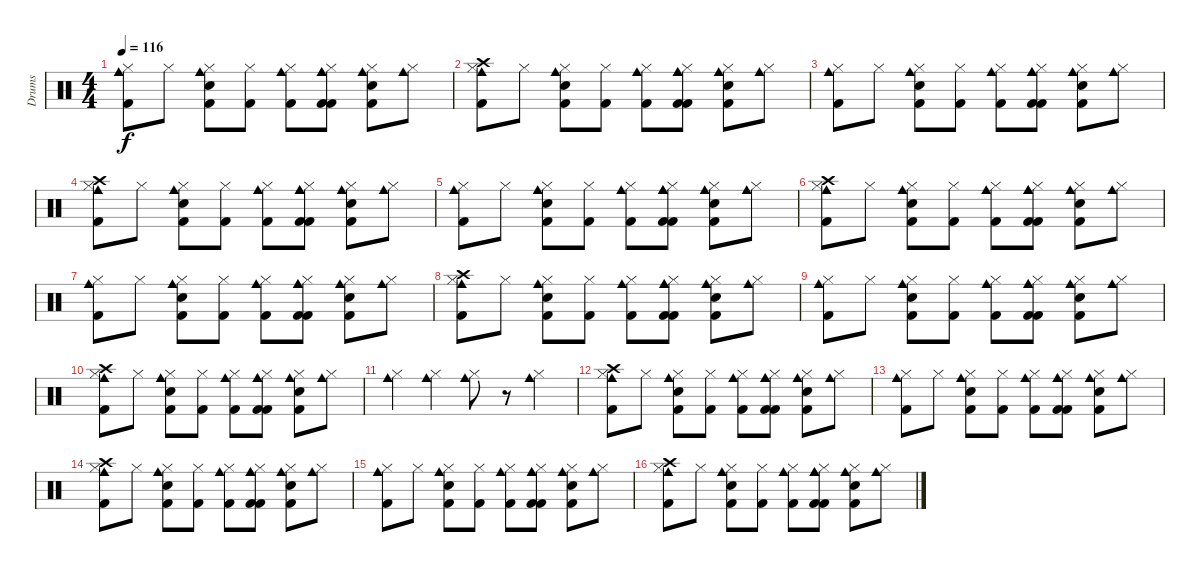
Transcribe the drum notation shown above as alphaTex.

\track ("Drums" "Drums") {instrument percussion}
\staff {score}
\articulation defaults
\ts (4 4)
\tempo 116
\clef neutral
\ks c
("Kick (hit) 2" "Hi-Hat (closed)" "Cowbell medium (hit)").8{dy f} "Hi-Hat (closed)".8 ("Snare (hit) 2" "Kick (hit) 2" "Hi-Hat (closed)" "Cowbell medium (hit)").8 ("Kick (hit) 2" "Hi-Hat (closed)").8 ("Hi-Hat (closed)" "Kick (hit) 2" "Cowbell medium (hit)").8 ("Kick (hit) 2" "Hi-Hat (closed)" "Cowbell medium (hit)" "Kick (hit) 2" "Cowbell medium (hit)").8 ("Kick (hit) 2" "Snare (hit) 2" "Hi-Hat (closed)" "Cowbell medium (hit)").8 ("Hi-Hat (closed)" "Cowbell medium (hit)").8 |
("Kick (hit) 2" "Hi-Hat (closed)" "Cowbell medium (hit)" "Crash high (hit)").8 "Hi-Hat (closed)".8 ("Snare (hit) 2" "Kick (hit) 2" "Hi-Hat (closed)" "Cowbell medium (hit)").8 ("Kick (hit) 2" "Hi-Hat (closed)").8 ("Hi-Hat (closed)" "Kick (hit) 2" "Cowbell medium (hit)").8 ("Kick (hit) 2" "Hi-Hat (closed)" "Cowbell medium (hit)" "Kick (hit) 2" "Cowbell medium (hit)").8 ("Kick (hit) 2" "Snare (hit) 2" "Hi-Hat (closed)" "Cowbell medium (hit)").8 ("Hi-Hat (closed)" "Cowbell medium (hit)").8 |
("Kick (hit) 2" "Hi-Hat (closed)" "Cowbell medium (hit)").8 "Hi-Hat (closed)".8 ("Snare (hit) 2" "Kick (hit) 2" "Hi-Hat (closed)" "Cowbell medium (hit)").8 ("Kick (hit) 2" "Hi-Hat (closed)").8 ("Hi-Hat (closed)" "Kick (hit) 2" "Cowbell medium (hit)").8 ("Kick (hit) 2" "Hi-Hat (closed)" "Cowbell medium (hit)" "Kick (hit) 2" "Cowbell medium (hit)").8 ("Kick (hit) 2" "Snare (hit) 2" "Hi-Hat (closed)" "Cowbell medium (hit)").8 ("Hi-Hat (closed)" "Cowbell medium (hit)").8 |
("Kick (hit) 2" "Hi-Hat (closed)" "Cowbell medium (hit)" "Crash high (hit)").8 "Hi-Hat (closed)".8 ("Snare (hit) 2" "Kick (hit) 2" "Hi-Hat (closed)" "Cowbell medium (hit)").8 ("Kick (hit) 2" "Hi-Hat (closed)").8 ("Hi-Hat (closed)" "Kick (hit) 2" "Cowbell medium (hit)").8 ("Kick (hit) 2" "Hi-Hat (closed)" "Cowbell medium (hit)" "Kick (hit) 2" "Cowbell medium (hit)").8 ("Kick (hit) 2" "Snare (hit) 2" "Hi-Hat (closed)" "Cowbell medium (hit)").8 ("Hi-Hat (closed)" "Cowbell medium (hit)").8 |
("Kick (hit) 2" "Hi-Hat (closed)" "Cowbell medium (hit)").8 "Hi-Hat (closed)".8 ("Snare (hit) 2" "Kick (hit) 2" "Hi-Hat (closed)" "Cowbell medium (hit)").8 ("Kick (hit) 2" "Hi-Hat (closed)").8 ("Hi-Hat (closed)" "Kick (hit) 2" "Cowbell medium (hit)").8 ("Kick (hit) 2" "Hi-Hat (closed)" "Cowbell medium (hit)" "Kick (hit) 2" "Cowbell medium (hit)").8 ("Kick (hit) 2" "Snare (hit) 2" "Hi-Hat (closed)" "Cowbell medium (hit)").8 ("Hi-Hat (closed)" "Cowbell medium (hit)").8 |
("Kick (hit) 2" "Hi-Hat (closed)" "Cowbell medium (hit)" "Crash high (hit)").8 "Hi-Hat (closed)".8 ("Snare (hit) 2" "Kick (hit) 2" "Hi-Hat (closed)" "Cowbell medium (hit)").8 ("Kick (hit) 2" "Hi-Hat (closed)").8 ("Hi-Hat (closed)" "Kick (hit) 2" "Cowbell medium (hit)").8 ("Kick (hit) 2" "Hi-Hat (closed)" "Cowbell medium (hit)" "Kick (hit) 2" "Cowbell medium (hit)").8 ("Kick (hit) 2" "Snare (hit) 2" "Hi-Hat (closed)" "Cowbell medium (hit)").8 ("Hi-Hat (closed)" "Cowbell medium (hit)").8 |
("Kick (hit) 2" "Hi-Hat (closed)" "Cowbell medium (hit)").8 "Hi-Hat (closed)".8 ("Snare (hit) 2" "Kick (hit) 2" "Hi-Hat (closed)" "Cowbell medium (hit)").8 ("Kick (hit) 2" "Hi-Hat (closed)").8 ("Hi-Hat (closed)" "Kick (hit) 2" "Cowbell medium (hit)").8 ("Kick (hit) 2" "Hi-Hat (closed)" "Cowbell medium (hit)" "Kick (hit) 2" "Cowbell medium (hit)").8 ("Kick (hit) 2" "Snare (hit) 2" "Hi-Hat (closed)" "Cowbell medium (hit)").8 ("Hi-Hat (closed)" "Cowbell medium (hit)").8 |
("Kick (hit) 2" "Hi-Hat (closed)" "Cowbell medium (hit)" "Crash high (hit)").8 "Hi-Hat (closed)".8 ("Snare (hit) 2" "Kick (hit) 2" "Hi-Hat (closed)" "Cowbell medium (hit)").8 ("Kick (hit) 2" "Hi-Hat (closed)").8 ("Hi-Hat (closed)" "Kick (hit) 2" "Cowbell medium (hit)").8 ("Kick (hit) 2" "Hi-Hat (closed)" "Cowbell medium (hit)" "Kick (hit) 2" "Cowbell medium (hit)").8 ("Kick (hit) 2" "Snare (hit) 2" "Hi-Hat (closed)" "Cowbell medium (hit)").8 ("Hi-Hat (closed)" "Cowbell medium (hit)").8 |
("Kick (hit) 2" "Hi-Hat (closed)" "Cowbell medium (hit)").8 "Hi-Hat (closed)".8 ("Snare (hit) 2" "Kick (hit) 2" "Hi-Hat (closed)" "Cowbell medium (hit)").8 ("Kick (hit) 2" "Hi-Hat (closed)").8 ("Hi-Hat (closed)" "Kick (hit) 2" "Cowbell medium (hit)").8 ("Kick (hit) 2" "Hi-Hat (closed)" "Cowbell medium (hit)" "Kick (hit) 2" "Cowbell medium (hit)").8 ("Kick (hit) 2" "Snare (hit) 2" "Hi-Hat (closed)" "Cowbell medium (hit)").8 ("Hi-Hat (closed)" "Cowbell medium (hit)").8 |
("Kick (hit) 2" "Hi-Hat (closed)" "Cowbell medium (hit)" "Crash high (hit)").8 "Hi-Hat (closed)".8 ("Snare (hit) 2" "Kick (hit) 2" "Hi-Hat (closed)" "Cowbell medium (hit)").8 ("Kick (hit) 2" "Hi-Hat (closed)").8 ("Hi-Hat (closed)" "Kick (hit) 2" "Cowbell medium (hit)").8 ("Kick (hit) 2" "Hi-Hat (closed)" "Cowbell medium (hit)" "Kick (hit) 2" "Cowbell medium (hit)").8 ("Kick (hit) 2" "Snare (hit) 2" "Hi-Hat (closed)" "Cowbell medium (hit)").8 ("Hi-Hat (closed)" "Cowbell medium (hit)").8 |
("Hi-Hat (closed)" "Cowbell medium (hit)").4 ("Hi-Hat (closed)" "Cowbell medium (hit)").4 ("Hi-Hat (closed)" "Cowbell medium (hit)").8 r.8 ("Hi-Hat (closed)" "Cowbell medium (hit)").4 |
("Kick (hit) 2" "Hi-Hat (closed)" "Crash high (hit)" "Cowbell medium (hit)").8 "Hi-Hat (closed)".8 ("Snare (hit) 2" "Kick (hit) 2" "Hi-Hat (closed)" "Cowbell medium (hit)").8 ("Kick (hit) 2" "Hi-Hat (closed)").8 ("Hi-Hat (closed)" "Kick (hit) 2" "Cowbell medium (hit)").8 ("Kick (hit) 2" "Hi-Hat (closed)" "Cowbell medium (hit)" "Kick (hit) 2" "Cowbell medium (hit)").8 ("Kick (hit) 2" "Snare (hit) 2" "Hi-Hat (closed)" "Cowbell medium (hit)").8 ("Hi-Hat (closed)" "Cowbell medium (hit)").8 |
("Kick (hit) 2" "Hi-Hat (closed)" "Cowbell medium (hit)").8 "Hi-Hat (closed)".8 ("Snare (hit) 2" "Kick (hit) 2" "Hi-Hat (closed)" "Cowbell medium (hit)").8 ("Kick (hit) 2" "Hi-Hat (closed)").8 ("Hi-Hat (closed)" "Kick (hit) 2" "Cowbell medium (hit)").8 ("Kick (hit) 2" "Hi-Hat (closed)" "Cowbell medium (hit)" "Kick (hit) 2" "Cowbell medium (hit)").8 ("Kick (hit) 2" "Snare (hit) 2" "Hi-Hat (closed)" "Cowbell medium (hit)").8 ("Hi-Hat (closed)" "Cowbell medium (hit)").8 |
("Kick (hit) 2" "Hi-Hat (closed)" "Crash high (hit)" "Cowbell medium (hit)").8 "Hi-Hat (closed)".8 ("Snare (hit) 2" "Kick (hit) 2" "Hi-Hat (closed)" "Cowbell medium (hit)").8 ("Kick (hit) 2" "Hi-Hat (closed)").8 ("Hi-Hat (closed)" "Kick (hit) 2" "Cowbell medium (hit)").8 ("Kick (hit) 2" "Hi-Hat (closed)" "Cowbell medium (hit)" "Kick (hit) 2" "Cowbell medium (hit)").8 ("Kick (hit) 2" "Snare (hit) 2" "Hi-Hat (closed)" "Cowbell medium (hit)").8 ("Hi-Hat (closed)" "Cowbell medium (hit)").8 |
("Kick (hit) 2" "Hi-Hat (closed)" "Cowbell medium (hit)").8 "Hi-Hat (closed)".8 ("Snare (hit) 2" "Kick (hit) 2" "Hi-Hat (closed)" "Cowbell medium (hit)").8 ("Kick (hit) 2" "Hi-Hat (closed)").8 ("Hi-Hat (closed)" "Kick (hit) 2" "Cowbell medium (hit)").8 ("Kick (hit) 2" "Hi-Hat (closed)" "Cowbell medium (hit)" "Kick (hit) 2" "Cowbell medium (hit)").8 ("Kick (hit) 2" "Snare (hit) 2" "Hi-Hat (closed)" "Cowbell medium (hit)").8 ("Hi-Hat (closed)" "Cowbell medium (hit)").8 |
("Kick (hit) 2" "Hi-Hat (closed)" "Crash high (hit)" "Cowbell medium (hit)").8 "Hi-Hat (closed)".8 ("Snare (hit) 2" "Kick (hit) 2" "Hi-Hat (closed)" "Cowbell medium (hit)").8 ("Kick (hit) 2" "Hi-Hat (closed)").8 ("Hi-Hat (closed)" "Kick (hit) 2" "Cowbell medium (hit)").8 ("Kick (hit) 2" "Hi-Hat (closed)" "Cowbell medium (hit)" "Kick (hit) 2" "Cowbell medium (hit)").8 ("Kick (hit) 2" "Snare (hit) 2" "Hi-Hat (closed)" "Cowbell medium (hit)").8 ("Hi-Hat (closed)" "Cowbell medium (hit)").8
